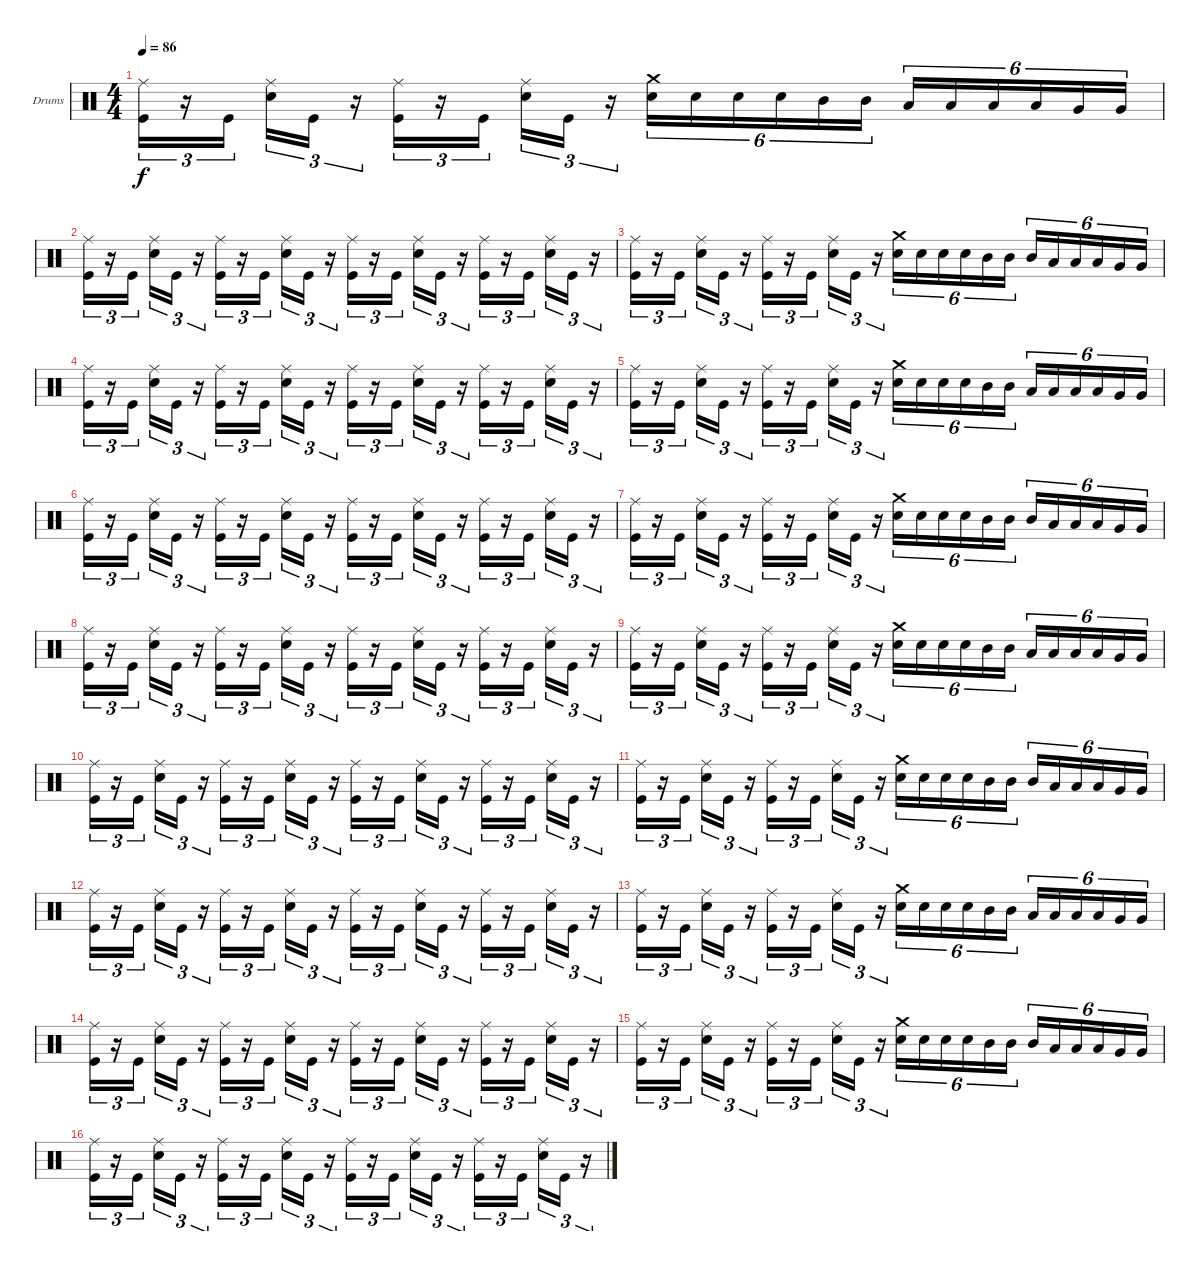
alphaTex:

\bracketExtendMode groupsimilarinstruments
\firstSystemTrackNameOrientation horizontal
\otherSystemsTrackNameOrientation horizontal
\track ("Drumkit" "Drums") {instrument percussion}
\staff {score}
\articulation defaults
\ts (4 4)
\tempo 86
\clef neutral
\ks c
("Kick (hit)" "Ride (middle)").16{tu (3 2) dy f} r.16{tu (3 2)} "Kick (hit)".16{tu (3 2)} ("Snare (hit) 2" "Ride (middle)").16{tu (3 2)} "Kick (hit)".16{tu (3 2)} r.16{tu (3 2)} ("Kick (hit)" "Ride (middle)").16{tu (3 2)} r.16{tu (3 2)} "Kick (hit)".16{tu (3 2)} ("Snare (hit) 2" "Ride (middle)").16{tu (3 2)} "Kick (hit)".16{tu (3 2)} r.16{tu (3 2)} ("Snare (hit) 2" "Crash medium (hit)").16{tu (6 4)} "Snare (hit) 2".16{tu (6 4)} "Snare (hit) 2".16{tu (6 4)} "Snare (hit) 2".16{tu (6 4)} "Mid Tom (hit)".16{tu (6 4)} "Mid Tom (hit)".16{tu (6 4)} "Low Tom (hit)".16{tu (6 4)} "Low Tom (hit)".16{tu (6 4)} "Low Tom (hit)".16{tu (6 4)} "Low Tom (hit)".16{tu (6 4)} "Very Low Tom (hit)".16{tu (6 4)} "Very Low Tom (hit)".16{tu (6 4)} |
("Kick (hit)" "Ride (middle)").16{tu (3 2)} r.16{tu (3 2)} "Kick (hit)".16{tu (3 2)} ("Snare (hit) 2" "Ride (middle)").16{tu (3 2)} "Kick (hit)".16{tu (3 2)} r.16{tu (3 2)} ("Kick (hit)" "Ride (middle)").16{tu (3 2)} r.16{tu (3 2)} "Kick (hit)".16{tu (3 2)} ("Snare (hit) 2" "Ride (middle)").16{tu (3 2)} "Kick (hit)".16{tu (3 2)} r.16{tu (3 2)} ("Kick (hit)" "Ride (middle)").16{tu (3 2)} r.16{tu (3 2)} "Kick (hit)".16{tu (3 2)} ("Snare (hit) 2" "Ride (middle)").16{tu (3 2)} "Kick (hit)".16{tu (3 2)} r.16{tu (3 2)} ("Kick (hit)" "Ride (middle)").16{tu (3 2)} r.16{tu (3 2)} "Kick (hit)".16{tu (3 2)} ("Snare (hit) 2" "Ride (middle)").16{tu (3 2)} "Kick (hit)".16{tu (3 2)} r.16{tu (3 2)} |
("Kick (hit)" "Ride (middle)").16{tu (3 2)} r.16{tu (3 2)} "Kick (hit)".16{tu (3 2)} ("Snare (hit) 2" "Ride (middle)").16{tu (3 2)} "Kick (hit)".16{tu (3 2)} r.16{tu (3 2)} ("Kick (hit)" "Ride (middle)").16{tu (3 2)} r.16{tu (3 2)} "Kick (hit)".16{tu (3 2)} ("Snare (hit) 2" "Ride (middle)").16{tu (3 2)} "Kick (hit)".16{tu (3 2)} r.16{tu (3 2)} ("Snare (hit) 2" "Crash medium (hit)").16{tu (6 4)} "Snare (hit) 2".16{tu (6 4)} "Snare (hit) 2".16{tu (6 4)} "Snare (hit) 2".16{tu (6 4)} "Mid Tom (hit)".16{tu (6 4)} "Mid Tom (hit)".16{tu (6 4)} "Mid Tom (hit)".16{tu (6 4)} "Low Tom (hit)".16{tu (6 4)} "Low Tom (hit)".16{tu (6 4)} "Low Tom (hit)".16{tu (6 4)} "Very Low Tom (hit)".16{tu (6 4)} "Very Low Tom (hit)".16{tu (6 4)} |
("Kick (hit)" "Ride (middle)").16{tu (3 2)} r.16{tu (3 2)} "Kick (hit)".16{tu (3 2)} ("Snare (hit) 2" "Ride (middle)").16{tu (3 2)} "Kick (hit)".16{tu (3 2)} r.16{tu (3 2)} ("Kick (hit)" "Ride (middle)").16{tu (3 2)} r.16{tu (3 2)} "Kick (hit)".16{tu (3 2)} ("Snare (hit) 2" "Ride (middle)").16{tu (3 2)} "Kick (hit)".16{tu (3 2)} r.16{tu (3 2)} ("Kick (hit)" "Ride (middle)").16{tu (3 2)} r.16{tu (3 2)} "Kick (hit)".16{tu (3 2)} ("Snare (hit) 2" "Ride (middle)").16{tu (3 2)} "Kick (hit)".16{tu (3 2)} r.16{tu (3 2)} ("Kick (hit)" "Ride (middle)").16{tu (3 2)} r.16{tu (3 2)} "Kick (hit)".16{tu (3 2)} ("Snare (hit) 2" "Ride (middle)").16{tu (3 2)} "Kick (hit)".16{tu (3 2)} r.16{tu (3 2)} |
("Kick (hit)" "Ride (middle)").16{tu (3 2)} r.16{tu (3 2)} "Kick (hit)".16{tu (3 2)} ("Snare (hit) 2" "Ride (middle)").16{tu (3 2)} "Kick (hit)".16{tu (3 2)} r.16{tu (3 2)} ("Kick (hit)" "Ride (middle)").16{tu (3 2)} r.16{tu (3 2)} "Kick (hit)".16{tu (3 2)} ("Snare (hit) 2" "Ride (middle)").16{tu (3 2)} "Kick (hit)".16{tu (3 2)} r.16{tu (3 2)} ("Snare (hit) 2" "Crash medium (hit)").16{tu (6 4)} "Snare (hit) 2".16{tu (6 4)} "Snare (hit) 2".16{tu (6 4)} "Snare (hit) 2".16{tu (6 4)} "Mid Tom (hit)".16{tu (6 4)} "Mid Tom (hit)".16{tu (6 4)} "Low Tom (hit)".16{tu (6 4)} "Low Tom (hit)".16{tu (6 4)} "Low Tom (hit)".16{tu (6 4)} "Low Tom (hit)".16{tu (6 4)} "Very Low Tom (hit)".16{tu (6 4)} "Very Low Tom (hit)".16{tu (6 4)} |
("Kick (hit)" "Ride (middle)").16{tu (3 2)} r.16{tu (3 2)} "Kick (hit)".16{tu (3 2)} ("Snare (hit) 2" "Ride (middle)").16{tu (3 2)} "Kick (hit)".16{tu (3 2)} r.16{tu (3 2)} ("Kick (hit)" "Ride (middle)").16{tu (3 2)} r.16{tu (3 2)} "Kick (hit)".16{tu (3 2)} ("Snare (hit) 2" "Ride (middle)").16{tu (3 2)} "Kick (hit)".16{tu (3 2)} r.16{tu (3 2)} ("Kick (hit)" "Ride (middle)").16{tu (3 2)} r.16{tu (3 2)} "Kick (hit)".16{tu (3 2)} ("Snare (hit) 2" "Ride (middle)").16{tu (3 2)} "Kick (hit)".16{tu (3 2)} r.16{tu (3 2)} ("Kick (hit)" "Ride (middle)").16{tu (3 2)} r.16{tu (3 2)} "Kick (hit)".16{tu (3 2)} ("Snare (hit) 2" "Ride (middle)").16{tu (3 2)} "Kick (hit)".16{tu (3 2)} r.16{tu (3 2)} |
("Kick (hit)" "Ride (middle)").16{tu (3 2)} r.16{tu (3 2)} "Kick (hit)".16{tu (3 2)} ("Snare (hit) 2" "Ride (middle)").16{tu (3 2)} "Kick (hit)".16{tu (3 2)} r.16{tu (3 2)} ("Kick (hit)" "Ride (middle)").16{tu (3 2)} r.16{tu (3 2)} "Kick (hit)".16{tu (3 2)} ("Snare (hit) 2" "Ride (middle)").16{tu (3 2)} "Kick (hit)".16{tu (3 2)} r.16{tu (3 2)} ("Snare (hit) 2" "Crash medium (hit)").16{tu (6 4)} "Snare (hit) 2".16{tu (6 4)} "Snare (hit) 2".16{tu (6 4)} "Snare (hit) 2".16{tu (6 4)} "Mid Tom (hit)".16{tu (6 4)} "Mid Tom (hit)".16{tu (6 4)} "Mid Tom (hit)".16{tu (6 4)} "Low Tom (hit)".16{tu (6 4)} "Low Tom (hit)".16{tu (6 4)} "Low Tom (hit)".16{tu (6 4)} "Very Low Tom (hit)".16{tu (6 4)} "Very Low Tom (hit)".16{tu (6 4)} |
("Kick (hit)" "Ride (middle)").16{tu (3 2)} r.16{tu (3 2)} "Kick (hit)".16{tu (3 2)} ("Snare (hit) 2" "Ride (middle)").16{tu (3 2)} "Kick (hit)".16{tu (3 2)} r.16{tu (3 2)} ("Kick (hit)" "Ride (middle)").16{tu (3 2)} r.16{tu (3 2)} "Kick (hit)".16{tu (3 2)} ("Snare (hit) 2" "Ride (middle)").16{tu (3 2)} "Kick (hit)".16{tu (3 2)} r.16{tu (3 2)} ("Kick (hit)" "Ride (middle)").16{tu (3 2)} r.16{tu (3 2)} "Kick (hit)".16{tu (3 2)} ("Snare (hit) 2" "Ride (middle)").16{tu (3 2)} "Kick (hit)".16{tu (3 2)} r.16{tu (3 2)} ("Kick (hit)" "Ride (middle)").16{tu (3 2)} r.16{tu (3 2)} "Kick (hit)".16{tu (3 2)} ("Snare (hit) 2" "Ride (middle)").16{tu (3 2)} "Kick (hit)".16{tu (3 2)} r.16{tu (3 2)} |
("Kick (hit)" "Ride (middle)").16{tu (3 2)} r.16{tu (3 2)} "Kick (hit)".16{tu (3 2)} ("Snare (hit) 2" "Ride (middle)").16{tu (3 2)} "Kick (hit)".16{tu (3 2)} r.16{tu (3 2)} ("Kick (hit)" "Ride (middle)").16{tu (3 2)} r.16{tu (3 2)} "Kick (hit)".16{tu (3 2)} ("Snare (hit) 2" "Ride (middle)").16{tu (3 2)} "Kick (hit)".16{tu (3 2)} r.16{tu (3 2)} ("Snare (hit) 2" "Crash medium (hit)").16{tu (6 4)} "Snare (hit) 2".16{tu (6 4)} "Snare (hit) 2".16{tu (6 4)} "Snare (hit) 2".16{tu (6 4)} "Mid Tom (hit)".16{tu (6 4)} "Mid Tom (hit)".16{tu (6 4)} "Low Tom (hit)".16{tu (6 4)} "Low Tom (hit)".16{tu (6 4)} "Low Tom (hit)".16{tu (6 4)} "Low Tom (hit)".16{tu (6 4)} "Very Low Tom (hit)".16{tu (6 4)} "Very Low Tom (hit)".16{tu (6 4)} |
("Kick (hit)" "Ride (middle)").16{tu (3 2)} r.16{tu (3 2)} "Kick (hit)".16{tu (3 2)} ("Snare (hit) 2" "Ride (middle)").16{tu (3 2)} "Kick (hit)".16{tu (3 2)} r.16{tu (3 2)} ("Kick (hit)" "Ride (middle)").16{tu (3 2)} r.16{tu (3 2)} "Kick (hit)".16{tu (3 2)} ("Snare (hit) 2" "Ride (middle)").16{tu (3 2)} "Kick (hit)".16{tu (3 2)} r.16{tu (3 2)} ("Kick (hit)" "Ride (middle)").16{tu (3 2)} r.16{tu (3 2)} "Kick (hit)".16{tu (3 2)} ("Snare (hit) 2" "Ride (middle)").16{tu (3 2)} "Kick (hit)".16{tu (3 2)} r.16{tu (3 2)} ("Kick (hit)" "Ride (middle)").16{tu (3 2)} r.16{tu (3 2)} "Kick (hit)".16{tu (3 2)} ("Snare (hit) 2" "Ride (middle)").16{tu (3 2)} "Kick (hit)".16{tu (3 2)} r.16{tu (3 2)} |
("Kick (hit)" "Ride (middle)").16{tu (3 2)} r.16{tu (3 2)} "Kick (hit)".16{tu (3 2)} ("Snare (hit) 2" "Ride (middle)").16{tu (3 2)} "Kick (hit)".16{tu (3 2)} r.16{tu (3 2)} ("Kick (hit)" "Ride (middle)").16{tu (3 2)} r.16{tu (3 2)} "Kick (hit)".16{tu (3 2)} ("Snare (hit) 2" "Ride (middle)").16{tu (3 2)} "Kick (hit)".16{tu (3 2)} r.16{tu (3 2)} ("Snare (hit) 2" "Crash medium (hit)").16{tu (6 4)} "Snare (hit) 2".16{tu (6 4)} "Snare (hit) 2".16{tu (6 4)} "Snare (hit) 2".16{tu (6 4)} "Mid Tom (hit)".16{tu (6 4)} "Mid Tom (hit)".16{tu (6 4)} "Mid Tom (hit)".16{tu (6 4)} "Low Tom (hit)".16{tu (6 4)} "Low Tom (hit)".16{tu (6 4)} "Low Tom (hit)".16{tu (6 4)} "Very Low Tom (hit)".16{tu (6 4)} "Very Low Tom (hit)".16{tu (6 4)} |
("Kick (hit)" "Ride (middle)").16{tu (3 2)} r.16{tu (3 2)} "Kick (hit)".16{tu (3 2)} ("Snare (hit) 2" "Ride (middle)").16{tu (3 2)} "Kick (hit)".16{tu (3 2)} r.16{tu (3 2)} ("Kick (hit)" "Ride (middle)").16{tu (3 2)} r.16{tu (3 2)} "Kick (hit)".16{tu (3 2)} ("Snare (hit) 2" "Ride (middle)").16{tu (3 2)} "Kick (hit)".16{tu (3 2)} r.16{tu (3 2)} ("Kick (hit)" "Ride (middle)").16{tu (3 2)} r.16{tu (3 2)} "Kick (hit)".16{tu (3 2)} ("Snare (hit) 2" "Ride (middle)").16{tu (3 2)} "Kick (hit)".16{tu (3 2)} r.16{tu (3 2)} ("Kick (hit)" "Ride (middle)").16{tu (3 2)} r.16{tu (3 2)} "Kick (hit)".16{tu (3 2)} ("Snare (hit) 2" "Ride (middle)").16{tu (3 2)} "Kick (hit)".16{tu (3 2)} r.16{tu (3 2)} |
("Kick (hit)" "Ride (middle)").16{tu (3 2)} r.16{tu (3 2)} "Kick (hit)".16{tu (3 2)} ("Snare (hit) 2" "Ride (middle)").16{tu (3 2)} "Kick (hit)".16{tu (3 2)} r.16{tu (3 2)} ("Kick (hit)" "Ride (middle)").16{tu (3 2)} r.16{tu (3 2)} "Kick (hit)".16{tu (3 2)} ("Snare (hit) 2" "Ride (middle)").16{tu (3 2)} "Kick (hit)".16{tu (3 2)} r.16{tu (3 2)} ("Snare (hit) 2" "Crash medium (hit)").16{tu (6 4)} "Snare (hit) 2".16{tu (6 4)} "Snare (hit) 2".16{tu (6 4)} "Snare (hit) 2".16{tu (6 4)} "Mid Tom (hit)".16{tu (6 4)} "Mid Tom (hit)".16{tu (6 4)} "Low Tom (hit)".16{tu (6 4)} "Low Tom (hit)".16{tu (6 4)} "Low Tom (hit)".16{tu (6 4)} "Low Tom (hit)".16{tu (6 4)} "Very Low Tom (hit)".16{tu (6 4)} "Very Low Tom (hit)".16{tu (6 4)} |
("Kick (hit)" "Ride (middle)").16{tu (3 2)} r.16{tu (3 2)} "Kick (hit)".16{tu (3 2)} ("Snare (hit) 2" "Ride (middle)").16{tu (3 2)} "Kick (hit)".16{tu (3 2)} r.16{tu (3 2)} ("Kick (hit)" "Ride (middle)").16{tu (3 2)} r.16{tu (3 2)} "Kick (hit)".16{tu (3 2)} ("Snare (hit) 2" "Ride (middle)").16{tu (3 2)} "Kick (hit)".16{tu (3 2)} r.16{tu (3 2)} ("Kick (hit)" "Ride (middle)").16{tu (3 2)} r.16{tu (3 2)} "Kick (hit)".16{tu (3 2)} ("Snare (hit) 2" "Ride (middle)").16{tu (3 2)} "Kick (hit)".16{tu (3 2)} r.16{tu (3 2)} ("Kick (hit)" "Ride (middle)").16{tu (3 2)} r.16{tu (3 2)} "Kick (hit)".16{tu (3 2)} ("Snare (hit) 2" "Ride (middle)").16{tu (3 2)} "Kick (hit)".16{tu (3 2)} r.16{tu (3 2)} |
("Kick (hit)" "Ride (middle)").16{tu (3 2)} r.16{tu (3 2)} "Kick (hit)".16{tu (3 2)} ("Snare (hit) 2" "Ride (middle)").16{tu (3 2)} "Kick (hit)".16{tu (3 2)} r.16{tu (3 2)} ("Kick (hit)" "Ride (middle)").16{tu (3 2)} r.16{tu (3 2)} "Kick (hit)".16{tu (3 2)} ("Snare (hit) 2" "Ride (middle)").16{tu (3 2)} "Kick (hit)".16{tu (3 2)} r.16{tu (3 2)} ("Snare (hit) 2" "Crash medium (hit)").16{tu (6 4)} "Snare (hit) 2".16{tu (6 4)} "Snare (hit) 2".16{tu (6 4)} "Snare (hit) 2".16{tu (6 4)} "Mid Tom (hit)".16{tu (6 4)} "Mid Tom (hit)".16{tu (6 4)} "Mid Tom (hit)".16{tu (6 4)} "Low Tom (hit)".16{tu (6 4)} "Low Tom (hit)".16{tu (6 4)} "Low Tom (hit)".16{tu (6 4)} "Very Low Tom (hit)".16{tu (6 4)} "Very Low Tom (hit)".16{tu (6 4)} |
("Kick (hit)" "Ride (middle)").16{tu (3 2)} r.16{tu (3 2)} "Kick (hit)".16{tu (3 2)} ("Snare (hit) 2" "Ride (middle)").16{tu (3 2)} "Kick (hit)".16{tu (3 2)} r.16{tu (3 2)} ("Kick (hit)" "Ride (middle)").16{tu (3 2)} r.16{tu (3 2)} "Kick (hit)".16{tu (3 2)} ("Snare (hit) 2" "Ride (middle)").16{tu (3 2)} "Kick (hit)".16{tu (3 2)} r.16{tu (3 2)} ("Kick (hit)" "Ride (middle)").16{tu (3 2)} r.16{tu (3 2)} "Kick (hit)".16{tu (3 2)} ("Snare (hit) 2" "Ride (middle)").16{tu (3 2)} "Kick (hit)".16{tu (3 2)} r.16{tu (3 2)} ("Kick (hit)" "Ride (middle)").16{tu (3 2)} r.16{tu (3 2)} "Kick (hit)".16{tu (3 2)} ("Snare (hit) 2" "Ride (middle)").16{tu (3 2)} "Kick (hit)".16{tu (3 2)} r.16{tu (3 2)}
